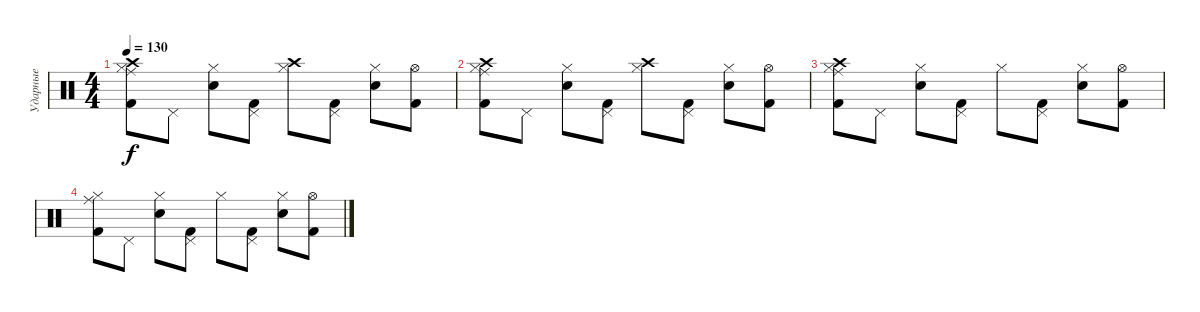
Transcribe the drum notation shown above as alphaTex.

\track ("Ударные" "Ударные") {instrument percussion}
\staff {score}
\articulation defaults
\ts (4 4)
\tempo 130
\clef neutral
\ks c
("Hi-Hat (closed)" "Kick (hit) 2" "Ride (middle)" "Crash high (hit)").8{dy f} "Pedal Hi-Hat (hit)".8 ("Hi-Hat (closed)" "Snare (hit) 2").8 ("Pedal Hi-Hat (hit)" "Kick (hit) 2").8 ("Hi-Hat (closed)" "Crash high (hit)").8 ("Pedal Hi-Hat (hit)" "Kick (hit) 2").8 ("Hi-Hat (closed)" "Snare (hit) 2").8 ("Hi-Hat (open)" "Kick (hit) 2").8 |
("Hi-Hat (closed)" "Kick (hit) 2" "Ride (middle)" "Crash high (hit)").8 "Pedal Hi-Hat (hit)".8 ("Hi-Hat (closed)" "Snare (hit) 2").8 ("Pedal Hi-Hat (hit)" "Kick (hit) 2").8 ("Hi-Hat (closed)" "Crash high (hit)").8 ("Pedal Hi-Hat (hit)" "Kick (hit) 2").8 ("Hi-Hat (closed)" "Snare (hit) 2").8 ("Hi-Hat (open)" "Kick (hit) 2").8 |
("Hi-Hat (closed)" "Kick (hit) 2" "Ride (middle)" "Crash high (hit)").8 "Pedal Hi-Hat (hit)".8 ("Hi-Hat (closed)" "Snare (hit) 2").8 ("Pedal Hi-Hat (hit)" "Kick (hit) 2").8 "Hi-Hat (closed)".8 ("Pedal Hi-Hat (hit)" "Kick (hit) 2").8 ("Hi-Hat (closed)" "Snare (hit) 2").8 ("Hi-Hat (open)" "Kick (hit) 2").8 |
("Hi-Hat (closed)" "Kick (hit) 2" "Ride (middle)").8 "Pedal Hi-Hat (hit)".8 ("Hi-Hat (closed)" "Snare (hit) 2").8 ("Pedal Hi-Hat (hit)" "Kick (hit) 2").8 "Hi-Hat (closed)".8 ("Pedal Hi-Hat (hit)" "Kick (hit) 2").8 ("Hi-Hat (closed)" "Snare (hit) 2").8 ("Hi-Hat (open)" "Kick (hit) 2").8
